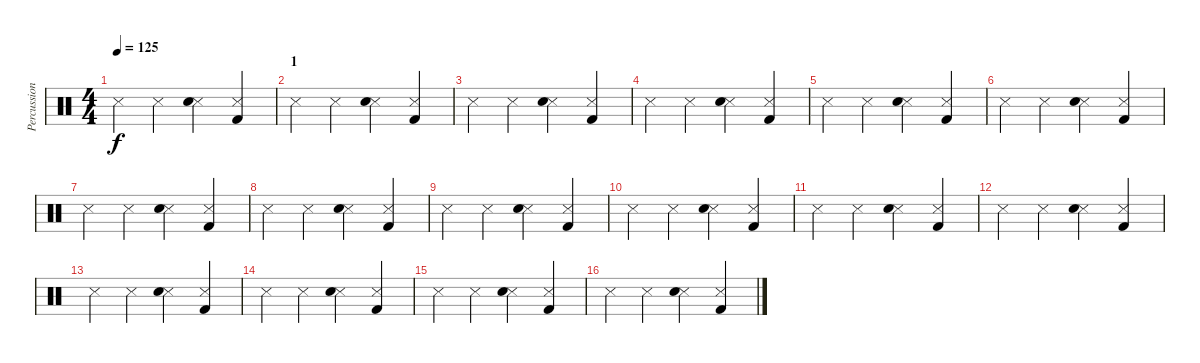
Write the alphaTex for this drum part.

\track ("Percussion" "Percussion") {instrument percussion}
\staff {score}
\articulation defaults
\ts (4 4)
\tempo 125
\clef neutral
\ks c "Snare (side stick) 3".4{dy f} "Snare (side stick) 3".4
("Snare (side stick) 3" "Electric Snare (hit)").4 ("Snare (side stick) 3" "Kick (hit) 2").4 |
\section ("" "1")
"Snare (side stick) 3".4 "Snare (side stick) 3".4 ("Snare (side stick) 3" "Electric Snare (hit)").4 ("Snare (side stick) 3" "Kick (hit) 2").4 |
"Snare (side stick) 3".4 "Snare (side stick) 3".4 ("Snare (side stick) 3" "Electric Snare (hit)").4 ("Snare (side stick) 3" "Kick (hit) 2").4 |
"Snare (side stick) 3".4 "Snare (side stick) 3".4 ("Snare (side stick) 3" "Electric Snare (hit)").4 ("Snare (side stick) 3" "Kick (hit) 2").4 |
"Snare (side stick) 3".4 "Snare (side stick) 3".4 ("Snare (side stick) 3" "Electric Snare (hit)").4 ("Snare (side stick) 3" "Kick (hit) 2").4 |
"Snare (side stick) 3".4 "Snare (side stick) 3".4 ("Snare (side stick) 3" "Electric Snare (hit)").4 ("Snare (side stick) 3" "Kick (hit) 2").4 |
"Snare (side stick) 3".4 "Snare (side stick) 3".4 ("Snare (side stick) 3" "Electric Snare (hit)").4 ("Snare (side stick) 3" "Kick (hit) 2").4 |
"Snare (side stick) 3".4 "Snare (side stick) 3".4 ("Snare (side stick) 3" "Electric Snare (hit)").4 ("Snare (side stick) 3" "Kick (hit) 2").4 |
"Snare (side stick) 3".4 "Snare (side stick) 3".4 ("Snare (side stick) 3" "Electric Snare (hit)").4 ("Snare (side stick) 3" "Kick (hit) 2").4 |
"Snare (side stick) 3".4 "Snare (side stick) 3".4 ("Snare (side stick) 3" "Electric Snare (hit)").4 ("Snare (side stick) 3" "Kick (hit) 2").4 |
"Snare (side stick) 3".4 "Snare (side stick) 3".4 ("Snare (side stick) 3" "Electric Snare (hit)").4 ("Snare (side stick) 3" "Kick (hit) 2").4 |
"Snare (side stick) 3".4 "Snare (side stick) 3".4 ("Snare (side stick) 3" "Electric Snare (hit)").4 ("Snare (side stick) 3" "Kick (hit) 2").4 |
"Snare (side stick) 3".4 "Snare (side stick) 3".4 ("Snare (side stick) 3" "Electric Snare (hit)").4 ("Snare (side stick) 3" "Kick (hit) 2").4 |
"Snare (side stick) 3".4 "Snare (side stick) 3".4 ("Snare (side stick) 3" "Electric Snare (hit)").4 ("Snare (side stick) 3" "Kick (hit) 2").4 |
"Snare (side stick) 3".4 "Snare (side stick) 3".4 ("Snare (side stick) 3" "Electric Snare (hit)").4 ("Snare (side stick) 3" "Kick (hit) 2").4 |
"Snare (side stick) 3".4 "Snare (side stick) 3".4 ("Snare (side stick) 3" "Electric Snare (hit)").4 ("Snare (side stick) 3" "Kick (hit) 2").4
